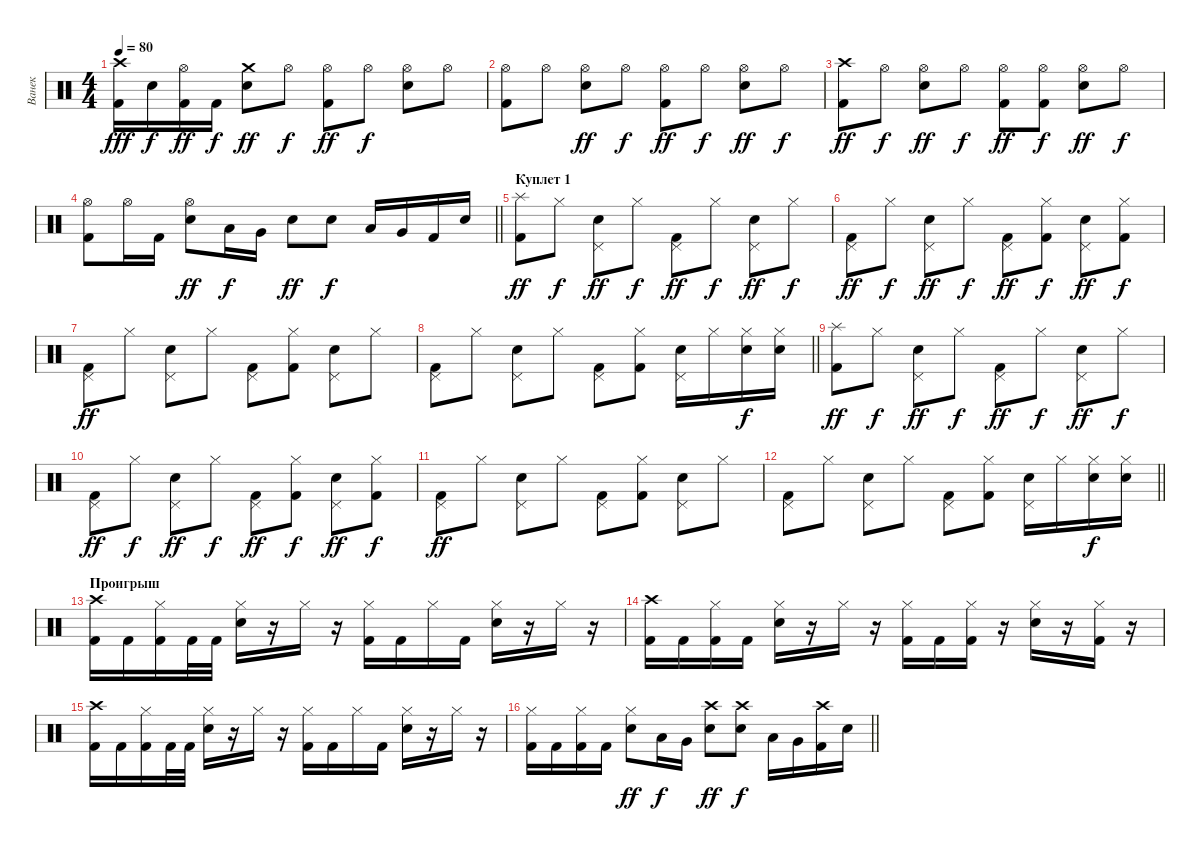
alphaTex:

\track ("Ванек" "Ванек") {instrument percussion}
\staff {score}
\articulation defaults
\ts (4 4)
\tempo 80
\clef neutral
\ks c
("Crash high (hit)" "Kick (hit) 2").16{dy fff} "Electric Snare (hit)".16{dy f} ("Hi-Hat (open)" "Kick (hit) 2").16{dy ff} "Kick (hit) 2".16{dy f} ("Crash medium (hit)" "Electric Snare (hit)").8{dy ff} "Hi-Hat (open)".8{dy f} ("Hi-Hat (open)" "Kick (hit) 2").8{dy ff} "Hi-Hat (open)".8{dy f} ("Hi-Hat (open)" "Electric Snare (hit)").8 "Hi-Hat (open)".8 |
("Hi-Hat (open)" "Kick (hit) 2").8 "Hi-Hat (open)".8 ("Hi-Hat (open)" "Electric Snare (hit)").8{dy ff} "Hi-Hat (open)".8{dy f} ("Hi-Hat (open)" "Kick (hit) 2").8{dy ff} "Hi-Hat (open)".8{dy f} ("Hi-Hat (open)" "Electric Snare (hit)").8{dy ff} "Hi-Hat (open)".8{dy f} |
("Crash high (hit)" "Kick (hit) 2").8{dy ff} "Hi-Hat (open)".8{dy f} ("Hi-Hat (open)" "Electric Snare (hit)").8{dy ff} "Hi-Hat (open)".8{dy f} ("Hi-Hat (open)" "Kick (hit) 2").8{dy ff} ("Hi-Hat (open)" "Kick (hit) 2").8{dy f} ("Hi-Hat (open)" "Electric Snare (hit)").8{dy ff} "Hi-Hat (open)".8{dy f} |
\barLineRight lightlight
("Hi-Hat (open)" "Kick (hit) 2").8 "Hi-Hat (open)".16 "Kick (hit) 2".16 ("Hi-Hat (open)" "Electric Snare (hit)").8{dy ff} "Low Floor Tom (hit)".16{dy f} "Very Low Tom (hit)".16 "Electric Snare (hit)".8{dy ff} "Electric Snare (hit)".8{dy f} "Low Floor Tom (hit)".16 "Very Low Tom (hit)".16 "Kick (hit) 2".16 "Electric Snare (hit)".16 |
\section ("" "Куплет 1")
("Splash (hit)" "Kick (hit) 2").8{dy ff} "Hi-Hat (closed)".8{dy f} ("Pedal Hi-Hat (hit)" "Electric Snare (hit)").8{dy ff} "Hi-Hat (closed)".8{dy f} ("Pedal Hi-Hat (hit)" "Kick (hit) 2").8{dy ff} "Hi-Hat (closed)".8{dy f} ("Pedal Hi-Hat (hit)" "Electric Snare (hit)").8{dy ff} "Hi-Hat (closed)".8{dy f} |
("Pedal Hi-Hat (hit)" "Kick (hit) 2").8{dy ff} "Hi-Hat (closed)".8{dy f} ("Pedal Hi-Hat (hit)" "Electric Snare (hit)").8{dy ff} "Hi-Hat (closed)".8{dy f} ("Pedal Hi-Hat (hit)" "Kick (hit) 2").8{dy ff} ("Hi-Hat (closed)" "Kick (hit) 2").8{dy f} ("Pedal Hi-Hat (hit)" "Electric Snare (hit)").8{dy ff} ("Hi-Hat (closed)" "Kick (hit) 2").8{dy f} |
("Pedal Hi-Hat (hit)" "Kick (hit) 2").8{dy ff} "Hi-Hat (closed)".8 ("Pedal Hi-Hat (hit)" "Electric Snare (hit)").8 "Hi-Hat (closed)".8 ("Pedal Hi-Hat (hit)" "Kick (hit) 2").8 ("Hi-Hat (closed)" "Kick (hit) 2").8 ("Pedal Hi-Hat (hit)" "Electric Snare (hit)").8 "Hi-Hat (closed)".8 |
\barLineRight lightlight
("Pedal Hi-Hat (hit)" "Kick (hit) 2").8 "Hi-Hat (closed)".8 ("Pedal Hi-Hat (hit)" "Electric Snare (hit)").8 "Hi-Hat (closed)".8 ("Pedal Hi-Hat (hit)" "Kick (hit) 2").8 ("Hi-Hat (closed)" "Kick (hit) 2").8 ("Pedal Hi-Hat (hit)" "Electric Snare (hit)").16 "Hi-Hat (closed)".16 ("Hi-Hat (closed)" "Electric Snare (hit)").16{dy f} ("Hi-Hat (closed)" "Electric Snare (hit)").16 |
("Splash (hit)" "Kick (hit) 2").8{dy ff} "Hi-Hat (closed)".8{dy f} ("Pedal Hi-Hat (hit)" "Electric Snare (hit)").8{dy ff} "Hi-Hat (closed)".8{dy f} ("Pedal Hi-Hat (hit)" "Kick (hit) 2").8{dy ff} "Hi-Hat (closed)".8{dy f} ("Pedal Hi-Hat (hit)" "Electric Snare (hit)").8{dy ff} "Hi-Hat (closed)".8{dy f} |
("Pedal Hi-Hat (hit)" "Kick (hit) 2").8{dy ff} "Hi-Hat (closed)".8{dy f} ("Pedal Hi-Hat (hit)" "Electric Snare (hit)").8{dy ff} "Hi-Hat (closed)".8{dy f} ("Pedal Hi-Hat (hit)" "Kick (hit) 2").8{dy ff} ("Hi-Hat (closed)" "Kick (hit) 2").8{dy f} ("Pedal Hi-Hat (hit)" "Electric Snare (hit)").8{dy ff} ("Hi-Hat (closed)" "Kick (hit) 2").8{dy f} |
("Pedal Hi-Hat (hit)" "Kick (hit) 2").8{dy ff} "Hi-Hat (closed)".8 ("Pedal Hi-Hat (hit)" "Electric Snare (hit)").8 "Hi-Hat (closed)".8 ("Pedal Hi-Hat (hit)" "Kick (hit) 2").8 ("Hi-Hat (closed)" "Kick (hit) 2").8 ("Pedal Hi-Hat (hit)" "Electric Snare (hit)").8 "Hi-Hat (closed)".8 |
\barLineRight lightlight
("Pedal Hi-Hat (hit)" "Kick (hit) 2").8 "Hi-Hat (closed)".8 ("Pedal Hi-Hat (hit)" "Electric Snare (hit)").8 "Hi-Hat (closed)".8 ("Pedal Hi-Hat (hit)" "Kick (hit) 2").8 ("Hi-Hat (closed)" "Kick (hit) 2").8 ("Pedal Hi-Hat (hit)" "Electric Snare (hit)").16 "Hi-Hat (closed)".16 ("Hi-Hat (closed)" "Electric Snare (hit)").16{dy f} ("Hi-Hat (closed)" "Electric Snare (hit)").16 |
\section ("" "Проигрыш")
("Crash high (hit)" "Kick (hit) 2").16 "Kick (hit) 2".16 ("Hi-Hat (closed)" "Kick (hit) 2").16 "Kick (hit) 2".32 "Kick (hit) 2".32 ("Hi-Hat (closed)" "Electric Snare (hit)").16 r.16 "Hi-Hat (closed)".16 r.16 ("Hi-Hat (closed)" "Kick (hit) 2").16 "Kick (hit) 2".16 "Hi-Hat (closed)".16 "Kick (hit) 2".16 ("Hi-Hat (closed)" "Electric Snare (hit)").16 r.16 "Hi-Hat (closed)".16 r.16 |
("Crash high (hit)" "Kick (hit) 2").16 "Kick (hit) 2".16 ("Hi-Hat (closed)" "Kick (hit) 2").16 "Kick (hit) 2".16 ("Hi-Hat (closed)" "Electric Snare (hit)").16 r.16 "Hi-Hat (closed)".16 r.16 ("Hi-Hat (closed)" "Kick (hit) 2").16 "Kick (hit) 2".16 ("Hi-Hat (closed)" "Kick (hit) 2").16 r.16 ("Hi-Hat (closed)" "Electric Snare (hit)").16 r.16 ("Hi-Hat (closed)" "Kick (hit) 2").16 r.16 |
("Crash high (hit)" "Kick (hit) 2").16 "Kick (hit) 2".16 ("Hi-Hat (closed)" "Kick (hit) 2").16 "Kick (hit) 2".32 "Kick (hit) 2".32 ("Hi-Hat (closed)" "Electric Snare (hit)").16 r.16 "Hi-Hat (closed)".16 r.16 ("Hi-Hat (closed)" "Kick (hit) 2").16 "Kick (hit) 2".16 "Hi-Hat (closed)".16 "Kick (hit) 2".16 ("Hi-Hat (closed)" "Electric Snare (hit)").16 r.16 "Hi-Hat (closed)".16 r.16 |
\barLineRight lightlight
("Hi-Hat (closed)" "Kick (hit) 2").16 "Kick (hit) 2".16 ("Hi-Hat (closed)" "Kick (hit) 2").16 "Kick (hit) 2".16 ("Hi-Hat (closed)" "Electric Snare (hit)").8{dy ff} "Low Floor Tom (hit)".16{dy f} "Very Low Tom (hit)".16 ("Crash high (hit)" "Electric Snare (hit)").8{dy ff} ("Crash high (hit)" "Electric Snare (hit)").8{dy f} "Low Floor Tom (hit)".16 "Very Low Tom (hit)".16 ("Crash high (hit)" "Kick (hit) 2").16 "Electric Snare (hit)".16
